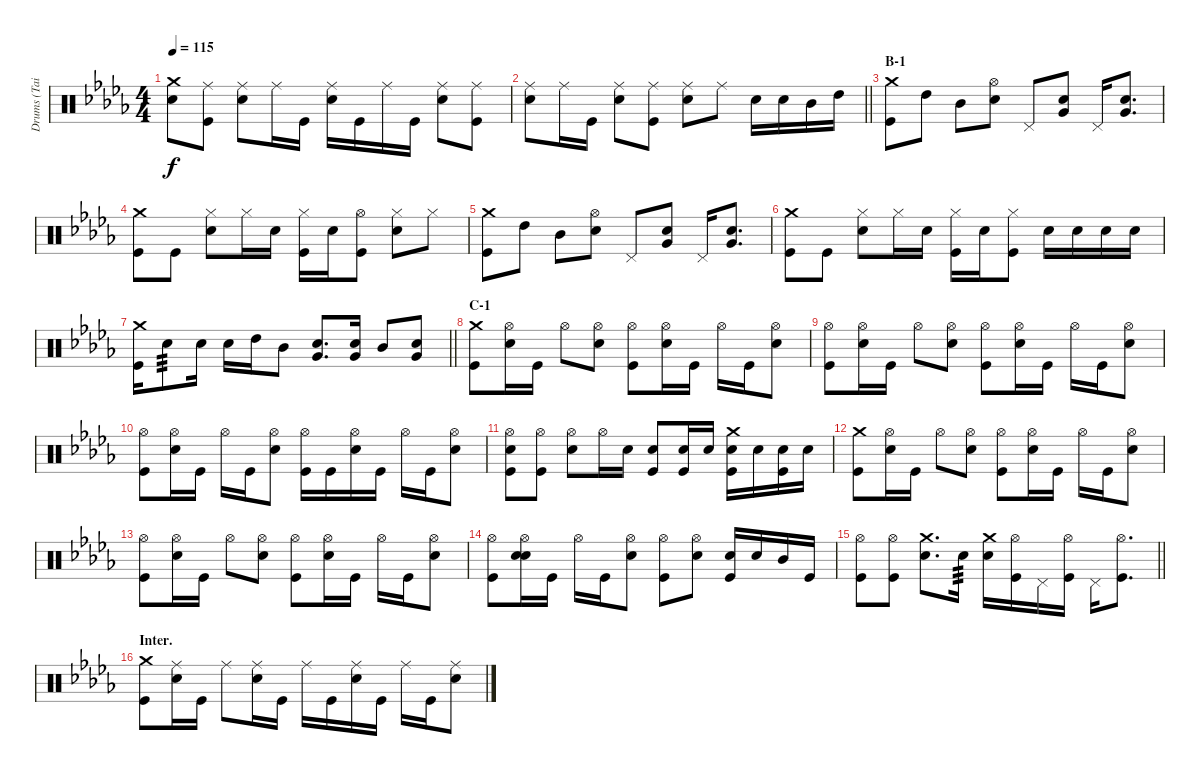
\track ("Drums (Tainaka Ritsu)" "Drums (Tai") {instrument percussion}
\staff {score}
\articulation defaults
\ts (4 4)
\tempo 115
\clef neutral
\ks db
("Crash medium (hit)" "Snare (hit) 2").8{dy f} ("Ride (middle)" "Kick (hit)").8 ("Ride (middle)" "Snare (hit) 2").8 "Ride (middle)".16 "Kick (hit)".16 ("Ride (middle)" "Snare (hit) 2").16 "Kick (hit)".16 "Ride (middle)".16 "Kick (hit)".16 ("Ride (middle)" "Snare (hit) 2").8 ("Ride (middle)" "Kick (hit)").8 |
\barLineRight lightlight
("Ride (middle)" "Snare (hit) 2").8 "Ride (middle)".16 "Kick (hit)".16 ("Ride (middle)" "Snare (hit) 2").8 ("Ride (middle)" "Kick (hit)").8 ("Ride (middle)" "Snare (hit) 2").8 "Ride (middle)".8 "Snare (hit) 2".16 "Snare (hit) 2".16 "Mid Tom (hit)".16 "High Tom (hit)".16 |
\section ("" "B-1")
("Crash medium (hit)" "Kick (hit)").8 "High Tom (hit)".8 "Mid Tom (hit)".8 ("Hi-Hat (open)" "Snare (hit) 2").8 "Pedal Hi-Hat (hit)".8 ("Snare (hit) 2" "Very Low Tom (hit)").8 "Pedal Hi-Hat (hit)".16 ("Snare (hit) 2" "Very Low Tom (hit)").8{d} |
("Crash medium (hit)" "Kick (hit)").8 "Kick (hit)".8 ("Hi-Hat (closed)" "Snare (hit) 2").8 "Hi-Hat (closed)".16 "Snare (hit) 2".16 ("Hi-Hat (closed)" "Kick (hit)").16 "Snare (hit) 2".16 ("Hi-Hat (open)" "Kick (hit)").8 ("Hi-Hat (closed)" "Snare (hit) 2").8 "Hi-Hat (closed)".8 |
("Crash medium (hit)" "Kick (hit)").8 "High Tom (hit)".8 "Mid Tom (hit)".8 ("Hi-Hat (open)" "Snare (hit) 2").8 "Pedal Hi-Hat (hit)".8 ("Snare (hit) 2" "Very Low Tom (hit)").8 "Pedal Hi-Hat (hit)".16 ("Snare (hit) 2" "Very Low Tom (hit)").8{d} |
("Crash medium (hit)" "Kick (hit)").8 "Kick (hit)".8 ("Hi-Hat (closed)" "Snare (hit) 2").8 "Hi-Hat (closed)".16 "Snare (hit) 2".16 ("Hi-Hat (closed)" "Kick (hit)").16 "Snare (hit) 2".16 ("Hi-Hat (closed)" "Kick (hit)").8 "Snare (hit) 2".16 "Snare (hit) 2".16 "Snare (hit) 2".16 "Snare (hit) 2".16 |
\barLineRight lightlight
("Crash medium (hit)" "Kick (hit)").16 "Snare (hit) 2".8{tp 3} "Snare (hit) 2".16 "Snare (hit) 2".16 "High Tom (hit)".16 "Mid Tom (hit)".8 ("Snare (hit) 2" "Very Low Tom (hit)").8{d} ("Snare (hit) 2" "Very Low Tom (hit)").16 "Mid Tom (hit)".8 ("Snare (hit) 2" "Very Low Tom (hit)").8 |
\section ("" "C-1")
("Crash medium (hit)" "Kick (hit)").8 ("Hi-Hat (open)" "Snare (hit) 2").16 "Kick (hit)".16 "Hi-Hat (open)".8 ("Hi-Hat (open)" "Snare (hit) 2").8 ("Hi-Hat (open)" "Kick (hit)").8 ("Hi-Hat (open)" "Snare (hit) 2").16 "Kick (hit)".16 "Hi-Hat (open)".16 "Kick (hit)".16 ("Hi-Hat (open)" "Snare (hit) 2").8 |
("Hi-Hat (open)" "Kick (hit)").8 ("Hi-Hat (open)" "Snare (hit) 2").16 "Kick (hit)".16 "Hi-Hat (open)".8 ("Hi-Hat (open)" "Snare (hit) 2").8 ("Hi-Hat (open)" "Kick (hit)").8 ("Hi-Hat (open)" "Snare (hit) 2").16 "Kick (hit)".16 "Hi-Hat (open)".16 "Kick (hit)".16 ("Hi-Hat (open)" "Snare (hit) 2").8 |
("Hi-Hat (open)" "Kick (hit)").8 ("Hi-Hat (open)" "Snare (hit) 2").16 "Kick (hit)".16 "Hi-Hat (open)".16 "Kick (hit)".16 ("Hi-Hat (open)" "Snare (hit) 2").8 ("Hi-Hat (open)" "Kick (hit)").16 "Kick (hit)".16 ("Hi-Hat (open)" "Snare (hit) 2").16 "Kick (hit)".16 "Hi-Hat (open)".16 "Kick (hit)".16 ("Hi-Hat (open)" "Snare (hit) 2").8 |
("Hi-Hat (open)" "Snare (hit) 2" "Kick (hit)").8 ("Hi-Hat (open)" "Kick (hit)").8 ("Hi-Hat (open)" "Snare (hit) 2").8 "Hi-Hat (open)".16 "Snare (hit) 2".16 ("Snare (hit) 2" "Kick (hit)").8 ("Snare (hit) 2" "Kick (hit)").16 "Snare (hit) 2".16 ("Crash medium (hit)" "Snare (hit) 2" "Kick (hit)").16 "Snare (hit) 2".16 ("Snare (hit) 2" "Kick (hit)").16 "Snare (hit) 2".16 |
("Crash medium (hit)" "Kick (hit)").8 ("Hi-Hat (open)" "Snare (hit) 2").16 "Kick (hit)".16 "Hi-Hat (open)".8 ("Hi-Hat (open)" "Snare (hit) 2").8 ("Hi-Hat (open)" "Kick (hit)").8 ("Hi-Hat (open)" "Snare (hit) 2").16 "Kick (hit)".16 "Hi-Hat (open)".16 "Kick (hit)".16 ("Hi-Hat (open)" "Snare (hit) 2").8 |
("Hi-Hat (open)" "Kick (hit)").8 ("Hi-Hat (open)" "Snare (hit) 2").16 "Kick (hit)".16 "Hi-Hat (open)".8 ("Hi-Hat (open)" "Snare (hit) 2").8 ("Hi-Hat (open)" "Kick (hit)").8 ("Hi-Hat (open)" "Snare (hit) 2").16 "Kick (hit)".16 "Hi-Hat (open)".16 "Kick (hit)".16 ("Hi-Hat (open)" "Snare (hit) 2").8 |
("Hi-Hat (open)" "Kick (hit)").8 ("Hi-Hat (open)" "Snare (hit) 2" "Snare (hit) 2").16 "Kick (hit)".16 "Hi-Hat (open)".16 "Kick (hit)".16 ("Hi-Hat (open)" "Snare (hit) 2").8 ("Hi-Hat (open)" "Kick (hit)").8 ("Hi-Hat (open)" "Snare (hit) 2").8 ("Snare (hit) 2" "Kick (hit)").16 "Snare (hit) 2".16 "Mid Tom (hit)".16 "Kick (hit)".16 |
\barLineRight lightlight
("Hi-Hat (open)" "Kick (hit)").8 ("Hi-Hat (open)" "Kick (hit)").8 ("Crash medium (hit)" "Snare (hit) 2").8{d} "Snare (hit) 2".16{tp 3} ("Crash medium (hit)" "Snare (hit) 2").16 ("Hi-Hat (open)" "Kick (hit)").16 "Pedal Hi-Hat (hit)".16 ("Hi-Hat (open)" "Kick (hit)").16 "Pedal Hi-Hat (hit)".16 ("Hi-Hat (open)" "Kick (hit)").8{d} |
\section ("" "Inter.")
("Crash medium (hit)" "Kick (hit)").8 ("Ride (middle)" "Snare (hit) 2").16 "Kick (hit)".16 "Ride (middle)".8 ("Ride (middle)" "Snare (hit) 2").16 "Kick (hit)".16 "Ride (middle)".16 "Kick (hit)".16 ("Ride (middle)" "Snare (hit) 2").16 "Kick (hit)".16 "Ride (middle)".16 "Kick (hit)".16 ("Ride (middle)" "Snare (hit) 2").8
